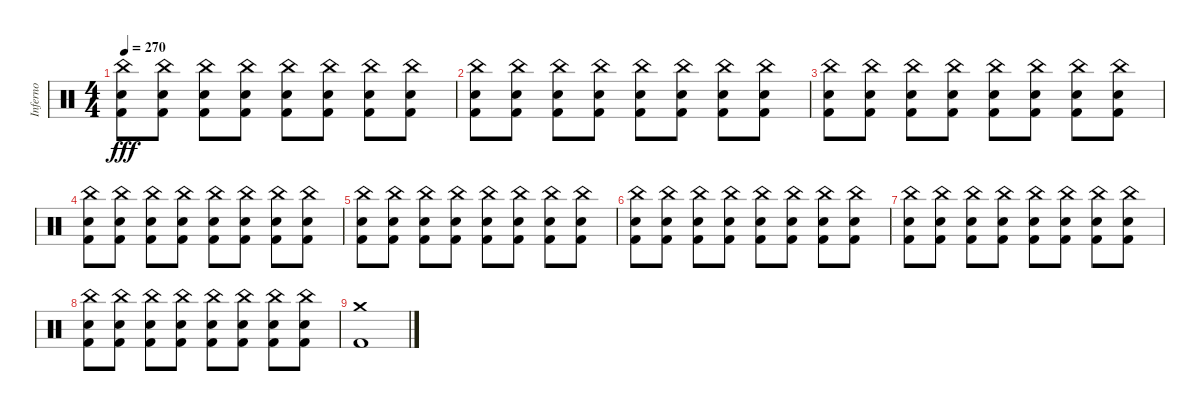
\track ("Inferno" "Inferno") {instrument percussion}
\staff {score}
\articulation defaults
\ts (4 4)
\tempo 270
\clef neutral
\ks c
("Kick (hit) 2" "Electric Snare (hit)" "China (hit)").8{dy fff} ("Kick (hit) 2" "Electric Snare (hit)" "China (hit)").8 ("Kick (hit) 2" "Electric Snare (hit)" "China (hit)").8 ("Kick (hit) 2" "Electric Snare (hit)" "China (hit)").8 ("Kick (hit) 2" "Electric Snare (hit)" "China (hit)").8 ("Kick (hit) 2" "Electric Snare (hit)" "China (hit)").8 ("Kick (hit) 2" "Electric Snare (hit)" "China (hit)").8 ("Kick (hit) 2" "Electric Snare (hit)" "China (hit)").8 |
("Kick (hit) 2" "Electric Snare (hit)" "China (hit)").8 ("Kick (hit) 2" "Electric Snare (hit)" "China (hit)").8 ("Kick (hit) 2" "Electric Snare (hit)" "China (hit)").8 ("Kick (hit) 2" "Electric Snare (hit)" "China (hit)").8 ("Kick (hit) 2" "Electric Snare (hit)" "China (hit)").8 ("Kick (hit) 2" "Electric Snare (hit)" "China (hit)").8 ("Kick (hit) 2" "Electric Snare (hit)" "China (hit)").8 ("Kick (hit) 2" "Electric Snare (hit)" "China (hit)").8 |
("Kick (hit) 2" "Electric Snare (hit)" "China (hit)").8 ("Kick (hit) 2" "Electric Snare (hit)" "China (hit)").8 ("Kick (hit) 2" "Electric Snare (hit)" "China (hit)").8 ("Kick (hit) 2" "Electric Snare (hit)" "China (hit)").8 ("Kick (hit) 2" "Electric Snare (hit)" "China (hit)").8 ("Kick (hit) 2" "Electric Snare (hit)" "China (hit)").8 ("Kick (hit) 2" "Electric Snare (hit)" "China (hit)").8 ("Kick (hit) 2" "Electric Snare (hit)" "China (hit)").8 |
("Kick (hit) 2" "Electric Snare (hit)" "China (hit)").8 ("Kick (hit) 2" "Electric Snare (hit)" "China (hit)").8 ("Kick (hit) 2" "Electric Snare (hit)" "China (hit)").8 ("Kick (hit) 2" "Electric Snare (hit)" "China (hit)").8 ("Kick (hit) 2" "Electric Snare (hit)" "China (hit)").8 ("Kick (hit) 2" "Electric Snare (hit)" "China (hit)").8 ("Kick (hit) 2" "Electric Snare (hit)" "China (hit)").8 ("Kick (hit) 2" "Electric Snare (hit)" "China (hit)").8 |
("Kick (hit) 2" "Electric Snare (hit)" "China (hit)").8 ("Kick (hit) 2" "Electric Snare (hit)" "China (hit)").8 ("Kick (hit) 2" "Electric Snare (hit)" "China (hit)").8 ("Kick (hit) 2" "Electric Snare (hit)" "China (hit)").8 ("Kick (hit) 2" "Electric Snare (hit)" "China (hit)").8 ("Kick (hit) 2" "Electric Snare (hit)" "China (hit)").8 ("Kick (hit) 2" "Electric Snare (hit)" "China (hit)").8 ("Kick (hit) 2" "Electric Snare (hit)" "China (hit)").8 |
("Kick (hit) 2" "Electric Snare (hit)" "China (hit)").8 ("Kick (hit) 2" "Electric Snare (hit)" "China (hit)").8 ("Kick (hit) 2" "Electric Snare (hit)" "China (hit)").8 ("Kick (hit) 2" "Electric Snare (hit)" "China (hit)").8 ("Kick (hit) 2" "Electric Snare (hit)" "China (hit)").8 ("Kick (hit) 2" "Electric Snare (hit)" "China (hit)").8 ("Kick (hit) 2" "Electric Snare (hit)" "China (hit)").8 ("Kick (hit) 2" "Electric Snare (hit)" "China (hit)").8 |
("Kick (hit) 2" "Electric Snare (hit)" "China (hit)").8 ("Kick (hit) 2" "Electric Snare (hit)" "China (hit)").8 ("Kick (hit) 2" "Electric Snare (hit)" "China (hit)").8 ("Kick (hit) 2" "Electric Snare (hit)" "China (hit)").8 ("Kick (hit) 2" "Electric Snare (hit)" "China (hit)").8 ("Kick (hit) 2" "Electric Snare (hit)" "China (hit)").8 ("Kick (hit) 2" "Electric Snare (hit)" "China (hit)").8 ("Kick (hit) 2" "Electric Snare (hit)" "China (hit)").8 |
("Kick (hit) 2" "Electric Snare (hit)" "China (hit)").8 ("Kick (hit) 2" "Electric Snare (hit)" "China (hit)").8 ("Kick (hit) 2" "Electric Snare (hit)" "China (hit)").8 ("Kick (hit) 2" "Electric Snare (hit)" "China (hit)").8 ("Kick (hit) 2" "Electric Snare (hit)" "China (hit)").8 ("Kick (hit) 2" "Electric Snare (hit)" "China (hit)").8 ("Kick (hit) 2" "Electric Snare (hit)" "China (hit)").8 ("Kick (hit) 2" "Electric Snare (hit)" "China (hit)").8 |
("Kick (hit) 2" "Crash medium (hit)").1
